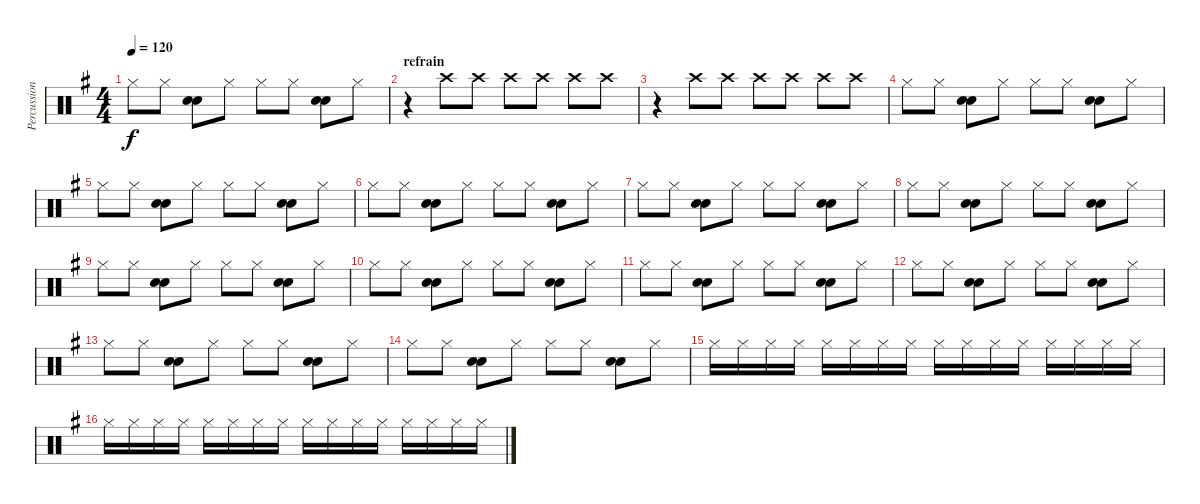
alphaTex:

\track ("Percussions" "Percussion") {instrument percussion}
\staff {score}
\articulation defaults
\ts (4 4)
\tempo 120
\clef neutral
\ks g "Hi-Hat (closed)".8{dy f} "Hi-Hat (closed)".8
("Snare (hit) 2" "Electric Snare (hit)").8 "Hi-Hat (closed)".8 "Hi-Hat (closed)".8 "Hi-Hat (closed)".8 ("Snare (hit) 2" "Electric Snare (hit)").8 "Hi-Hat (closed)".8 |
\section ("" "refrain")
r.4 "Crash high (hit)".8 "Crash high (hit)".8 "Crash high (hit)".8 "Crash high (hit)".8 "Crash high (hit)".8 "Crash high (hit)".8 |
r.4 "Crash high (hit)".8 "Crash high (hit)".8 "Crash high (hit)".8 "Crash high (hit)".8 "Crash high (hit)".8 "Crash high (hit)".8 |
"Hi-Hat (closed)".8 "Hi-Hat (closed)".8 ("Snare (hit) 2" "Electric Snare (hit)").8 "Hi-Hat (closed)".8 "Hi-Hat (closed)".8 "Hi-Hat (closed)".8 ("Snare (hit) 2" "Electric Snare (hit)").8 "Hi-Hat (closed)".8 |
"Hi-Hat (closed)".8 "Hi-Hat (closed)".8 ("Snare (hit) 2" "Electric Snare (hit)").8 "Hi-Hat (closed)".8 "Hi-Hat (closed)".8 "Hi-Hat (closed)".8 ("Snare (hit) 2" "Electric Snare (hit)").8 "Hi-Hat (closed)".8 |
"Hi-Hat (closed)".8 "Hi-Hat (closed)".8 ("Snare (hit) 2" "Electric Snare (hit)").8 "Hi-Hat (closed)".8 "Hi-Hat (closed)".8 "Hi-Hat (closed)".8 ("Snare (hit) 2" "Electric Snare (hit)").8 "Hi-Hat (closed)".8 |
"Hi-Hat (closed)".8 "Hi-Hat (closed)".8 ("Snare (hit) 2" "Electric Snare (hit)").8 "Hi-Hat (closed)".8 "Hi-Hat (closed)".8 "Hi-Hat (closed)".8 ("Snare (hit) 2" "Electric Snare (hit)").8 "Hi-Hat (closed)".8 |
"Hi-Hat (closed)".8 "Hi-Hat (closed)".8 ("Snare (hit) 2" "Electric Snare (hit)").8 "Hi-Hat (closed)".8 "Hi-Hat (closed)".8 "Hi-Hat (closed)".8 ("Snare (hit) 2" "Electric Snare (hit)").8 "Hi-Hat (closed)".8 |
"Hi-Hat (closed)".8 "Hi-Hat (closed)".8 ("Snare (hit) 2" "Electric Snare (hit)").8 "Hi-Hat (closed)".8 "Hi-Hat (closed)".8 "Hi-Hat (closed)".8 ("Snare (hit) 2" "Electric Snare (hit)").8 "Hi-Hat (closed)".8 |
"Hi-Hat (closed)".8 "Hi-Hat (closed)".8 ("Snare (hit) 2" "Electric Snare (hit)").8 "Hi-Hat (closed)".8 "Hi-Hat (closed)".8 "Hi-Hat (closed)".8 ("Snare (hit) 2" "Electric Snare (hit)").8 "Hi-Hat (closed)".8 |
"Hi-Hat (closed)".8 "Hi-Hat (closed)".8 ("Snare (hit) 2" "Electric Snare (hit)").8 "Hi-Hat (closed)".8 "Hi-Hat (closed)".8 "Hi-Hat (closed)".8 ("Snare (hit) 2" "Electric Snare (hit)").8 "Hi-Hat (closed)".8 |
"Hi-Hat (closed)".8 "Hi-Hat (closed)".8 ("Snare (hit) 2" "Electric Snare (hit)").8 "Hi-Hat (closed)".8 "Hi-Hat (closed)".8 "Hi-Hat (closed)".8 ("Snare (hit) 2" "Electric Snare (hit)").8 "Hi-Hat (closed)".8 |
"Hi-Hat (closed)".8 "Hi-Hat (closed)".8 ("Snare (hit) 2" "Electric Snare (hit)").8 "Hi-Hat (closed)".8 "Hi-Hat (closed)".8 "Hi-Hat (closed)".8 ("Snare (hit) 2" "Electric Snare (hit)").8 "Hi-Hat (closed)".8 |
"Hi-Hat (closed)".8 "Hi-Hat (closed)".8 ("Snare (hit) 2" "Electric Snare (hit)").8 "Hi-Hat (closed)".8 "Hi-Hat (closed)".8 "Hi-Hat (closed)".8 ("Snare (hit) 2" "Electric Snare (hit)").8 "Hi-Hat (closed)".8 |
"Hi-Hat (closed)".16{volume 7} "Hi-Hat (closed)".16 "Hi-Hat (closed)".16 "Hi-Hat (closed)".16 "Hi-Hat (closed)".16 "Hi-Hat (closed)".16 "Hi-Hat (closed)".16 "Hi-Hat (closed)".16 "Hi-Hat (closed)".16 "Hi-Hat (closed)".16 "Hi-Hat (closed)".16 "Hi-Hat (closed)".16 "Hi-Hat (closed)".16 "Hi-Hat (closed)".16 "Hi-Hat (closed)".16 "Hi-Hat (closed)".16 |
"Hi-Hat (closed)".16 "Hi-Hat (closed)".16 "Hi-Hat (closed)".16 "Hi-Hat (closed)".16 "Hi-Hat (closed)".16 "Hi-Hat (closed)".16 "Hi-Hat (closed)".16 "Hi-Hat (closed)".16 "Hi-Hat (closed)".16 "Hi-Hat (closed)".16 "Hi-Hat (closed)".16 "Hi-Hat (closed)".16 "Hi-Hat (closed)".16 "Hi-Hat (closed)".16 "Hi-Hat (closed)".16 "Hi-Hat (closed)".16
